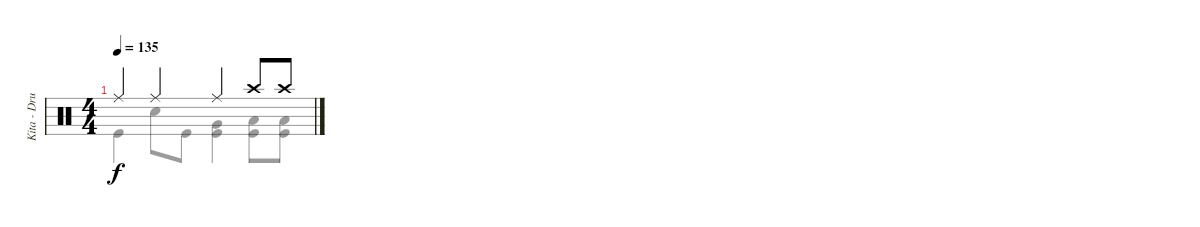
\track ("Kita - Drums" "Kita - Dru") {instrument percussion}
\staff {score}
\articulation defaults
\voice
\ts (4 4)
\tempo 135
\clef neutral
\ks c "Ride (middle)".4{dy f} "Ride (middle)".4 "Ride (middle)".4 "Crash high (hit)".8 "Crash high (hit)".8
|
\voice
\clef neutral
\ks c "Kick (hit)".4{dy f} "Snare (hit) 2".8 "Kick (hit)".8
("Very Low Tom (hit)" "Kick (hit)").4 ("Low Floor Tom (hit)" "Kick (hit)").8 ("Low Floor Tom (hit)" "Kick (hit)").8 |
